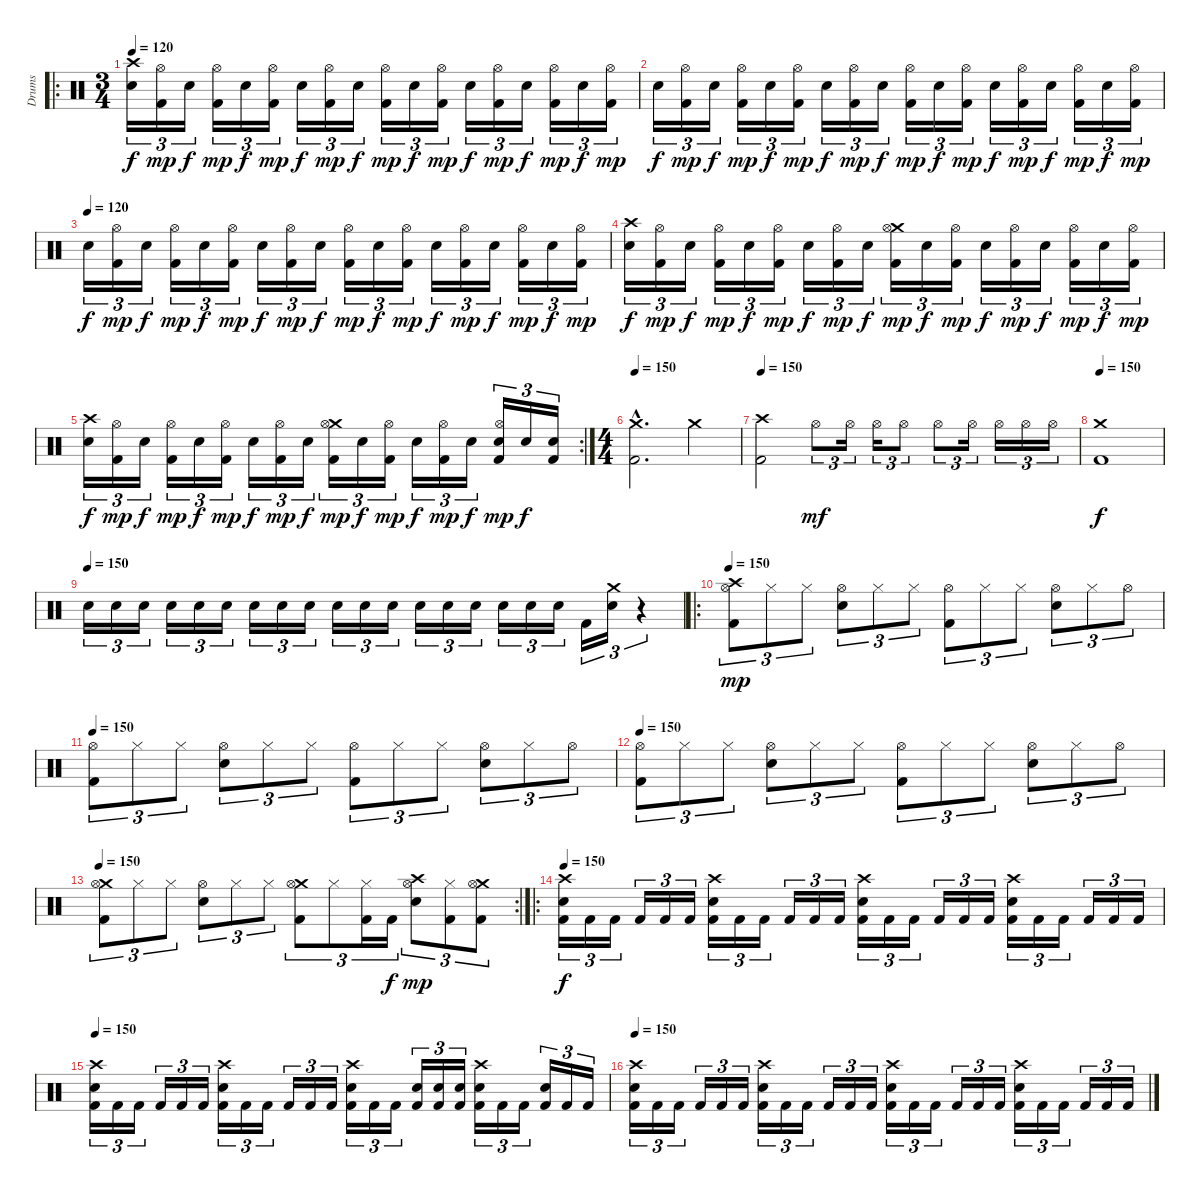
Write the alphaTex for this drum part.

\track ("Drums" "Drums") {instrument percussion}
\staff {score}
\articulation defaults
\ro
\ts (3 4)
\tempo 120
\clef neutral
\ks c
("Crash high (hit)" "Electric Snare (hit)").16{tu (3 2) dy f} ("Hi-Hat (open)" "Kick (hit) 2").16{tu (3 2) dy mp} "Electric Snare (hit)".16{tu (3 2) dy f} ("Hi-Hat (open)" "Kick (hit) 2").16{tu (3 2) dy mp} "Electric Snare (hit)".16{tu (3 2) dy f} ("Hi-Hat (open)" "Kick (hit) 2").16{tu (3 2) dy mp} "Electric Snare (hit)".16{tu (3 2) dy f} ("Hi-Hat (open)" "Kick (hit) 2").16{tu (3 2) dy mp} "Electric Snare (hit)".16{tu (3 2) dy f} ("Hi-Hat (open)" "Kick (hit) 2").16{tu (3 2) dy mp} "Electric Snare (hit)".16{tu (3 2) dy f} ("Hi-Hat (open)" "Kick (hit) 2").16{tu (3 2) dy mp} "Electric Snare (hit)".16{tu (3 2) dy f} ("Hi-Hat (open)" "Kick (hit) 2").16{tu (3 2) dy mp} "Electric Snare (hit)".16{tu (3 2) dy f} ("Hi-Hat (open)" "Kick (hit) 2").16{tu (3 2) dy mp} "Electric Snare (hit)".16{tu (3 2) dy f} ("Hi-Hat (open)" "Kick (hit) 2").16{tu (3 2) dy mp} |
"Electric Snare (hit)".16{tu (3 2) dy f} ("Hi-Hat (open)" "Kick (hit) 2").16{tu (3 2) dy mp} "Electric Snare (hit)".16{tu (3 2) dy f} ("Hi-Hat (open)" "Kick (hit) 2").16{tu (3 2) dy mp} "Electric Snare (hit)".16{tu (3 2) dy f} ("Hi-Hat (open)" "Kick (hit) 2").16{tu (3 2) dy mp} "Electric Snare (hit)".16{tu (3 2) dy f} ("Hi-Hat (open)" "Kick (hit) 2").16{tu (3 2) dy mp} "Electric Snare (hit)".16{tu (3 2) dy f} ("Hi-Hat (open)" "Kick (hit) 2").16{tu (3 2) dy mp} "Electric Snare (hit)".16{tu (3 2) dy f} ("Hi-Hat (open)" "Kick (hit) 2").16{tu (3 2) dy mp} "Electric Snare (hit)".16{tu (3 2) dy f} ("Hi-Hat (open)" "Kick (hit) 2").16{tu (3 2) dy mp} "Electric Snare (hit)".16{tu (3 2) dy f} ("Hi-Hat (open)" "Kick (hit) 2").16{tu (3 2) dy mp} "Electric Snare (hit)".16{tu (3 2) dy f} ("Hi-Hat (open)" "Kick (hit) 2").16{tu (3 2) dy mp} |
\tempo (120)
"Electric Snare (hit)".16{tu (3 2) dy f} ("Hi-Hat (open)" "Kick (hit) 2").16{tu (3 2) dy mp} "Electric Snare (hit)".16{tu (3 2) dy f} ("Hi-Hat (open)" "Kick (hit) 2").16{tu (3 2) dy mp} "Electric Snare (hit)".16{tu (3 2) dy f} ("Hi-Hat (open)" "Kick (hit) 2").16{tu (3 2) dy mp} "Electric Snare (hit)".16{tu (3 2) dy f} ("Hi-Hat (open)" "Kick (hit) 2").16{tu (3 2) dy mp} "Electric Snare (hit)".16{tu (3 2) dy f} ("Hi-Hat (open)" "Kick (hit) 2").16{tu (3 2) dy mp} "Electric Snare (hit)".16{tu (3 2) dy f} ("Hi-Hat (open)" "Kick (hit) 2").16{tu (3 2) dy mp} "Electric Snare (hit)".16{tu (3 2) dy f} ("Hi-Hat (open)" "Kick (hit) 2").16{tu (3 2) dy mp} "Electric Snare (hit)".16{tu (3 2) dy f} ("Hi-Hat (open)" "Kick (hit) 2").16{tu (3 2) dy mp} "Electric Snare (hit)".16{tu (3 2) dy f} ("Hi-Hat (open)" "Kick (hit) 2").16{tu (3 2) dy mp} |
("Crash high (hit)" "Electric Snare (hit)").16{tu (3 2) dy f} ("Hi-Hat (open)" "Kick (hit) 2").16{tu (3 2) dy mp} "Electric Snare (hit)".16{tu (3 2) dy f} ("Hi-Hat (open)" "Kick (hit) 2").16{tu (3 2) dy mp} "Electric Snare (hit)".16{tu (3 2) dy f} ("Hi-Hat (open)" "Kick (hit) 2").16{tu (3 2) dy mp} "Electric Snare (hit)".16{tu (3 2) dy f} ("Hi-Hat (open)" "Kick (hit) 2").16{tu (3 2) dy mp} "Electric Snare (hit)".16{tu (3 2) dy f} ("Crash medium (hit)" "Hi-Hat (open)" "Kick (hit) 2").16{tu (3 2) dy mp} "Electric Snare (hit)".16{tu (3 2) dy f} ("Hi-Hat (open)" "Kick (hit) 2").16{tu (3 2) dy mp} "Electric Snare (hit)".16{tu (3 2) dy f} ("Hi-Hat (open)" "Kick (hit) 2").16{tu (3 2) dy mp} "Electric Snare (hit)".16{tu (3 2) dy f} ("Hi-Hat (open)" "Kick (hit) 2").16{tu (3 2) dy mp} "Electric Snare (hit)".16{tu (3 2) dy f} ("Hi-Hat (open)" "Kick (hit) 2").16{tu (3 2) dy mp} |
\rc 2
("Crash high (hit)" "Electric Snare (hit)").16{tu (3 2) dy f} ("Hi-Hat (open)" "Kick (hit) 2").16{tu (3 2) dy mp} "Electric Snare (hit)".16{tu (3 2) dy f} ("Hi-Hat (open)" "Kick (hit) 2").16{tu (3 2) dy mp} "Electric Snare (hit)".16{tu (3 2) dy f} ("Hi-Hat (open)" "Kick (hit) 2").16{tu (3 2) dy mp} "Electric Snare (hit)".16{tu (3 2) dy f} ("Hi-Hat (open)" "Kick (hit) 2").16{tu (3 2) dy mp} "Electric Snare (hit)".16{tu (3 2) dy f} ("Crash medium (hit)" "Hi-Hat (open)" "Kick (hit) 2").16{tu (3 2) dy mp} "Electric Snare (hit)".16{tu (3 2) dy f} ("Hi-Hat (open)" "Kick (hit) 2").16{tu (3 2) dy mp} "Electric Snare (hit)".16{tu (3 2) dy f} ("Hi-Hat (open)" "Kick (hit) 2").16{tu (3 2) dy mp} "Electric Snare (hit)".16{tu (3 2) dy f} ("Hi-Hat (open)" "Electric Snare (hit)" "Kick (hit) 2").16{tu (3 2) dy mp} "Electric Snare (hit)".16{tu (3 2) dy f} ("Electric Snare (hit)" "Kick (hit) 2").16{tu (3 2)} |
\ts (4 4)
\tempo 150
("Crash medium (hit)"{hac} "Kick (hit) 2"{hac}).2{d} "Crash medium (hit)".4 |
\tempo 150
("Crash high (hit)" "Kick (hit) 2").2 "Hi-Hat (open)".8{tu (3 2) dy mf} "Hi-Hat (open)".16{tu (3 2)} "Hi-Hat (open)".16{tu (3 2)} "Hi-Hat (open)".8{tu (3 2)} "Hi-Hat (open)".8{tu (3 2)} "Hi-Hat (open)".16{tu (3 2)} "Hi-Hat (open)".16{tu (3 2)} "Hi-Hat (open)".16{tu (3 2)} "Hi-Hat (open)".16{tu (3 2)} |
\tempo 150
("Crash medium (hit)" "Kick (hit) 2").1{dy f} |
\tempo (150)
"Electric Snare (hit)".16{tu (3 2)} "Electric Snare (hit)".16{tu (3 2)} "Electric Snare (hit)".16{tu (3 2)} "Electric Snare (hit)".16{tu (3 2)} "Electric Snare (hit)".16{tu (3 2)} "Electric Snare (hit)".16{tu (3 2)} "Electric Snare (hit)".16{tu (3 2)} "Electric Snare (hit)".16{tu (3 2)} "Electric Snare (hit)".16{tu (3 2)} "Electric Snare (hit)".16{tu (3 2)} "Electric Snare (hit)".16{tu (3 2)} "Electric Snare (hit)".16{tu (3 2)} "Electric Snare (hit)".16{tu (3 2)} "Electric Snare (hit)".16{tu (3 2)} "Electric Snare (hit)".16{tu (3 2)} "Electric Snare (hit)".16{tu (3 2)} "Electric Snare (hit)".16{tu (3 2)} "Electric Snare (hit)".16{tu (3 2)} "Kick (hit) 2".16{tu (3 2)} ("Crash medium (hit)" "Electric Snare (hit)").16{tu (3 2)} r.4{tu (3 2)} |
\ro
\tempo 150
("Crash high (hit)" "Hi-Hat (open)" "Kick (hit) 2").8{tu (3 2) dy mp} "Hi-Hat (closed)".8{tu (3 2)} "Hi-Hat (closed)".8{tu (3 2)} ("Hi-Hat (open)" "Electric Snare (hit)").8{tu (3 2)} "Hi-Hat (closed)".8{tu (3 2)} "Hi-Hat (closed)".8{tu (3 2)} ("Hi-Hat (open)" "Kick (hit) 2").8{tu (3 2)} "Hi-Hat (closed)".8{tu (3 2)} "Hi-Hat (closed)".8{tu (3 2)} ("Hi-Hat (open)" "Electric Snare (hit)").8{tu (3 2)} "Hi-Hat (closed)".8{tu (3 2)} "Hi-Hat (open)".8{tu (3 2)} |
\tempo 150
("Hi-Hat (open)" "Kick (hit) 2").8{tu (3 2)} "Hi-Hat (closed)".8{tu (3 2)} "Hi-Hat (closed)".8{tu (3 2)} ("Hi-Hat (open)" "Electric Snare (hit)").8{tu (3 2)} "Hi-Hat (closed)".8{tu (3 2)} "Hi-Hat (closed)".8{tu (3 2)} ("Hi-Hat (open)" "Kick (hit) 2").8{tu (3 2)} "Hi-Hat (closed)".8{tu (3 2)} "Hi-Hat (closed)".8{tu (3 2)} ("Hi-Hat (open)" "Electric Snare (hit)").8{tu (3 2)} "Hi-Hat (closed)".8{tu (3 2)} "Hi-Hat (open)".8{tu (3 2)} |
\tempo 150
("Hi-Hat (open)" "Kick (hit) 2").8{tu (3 2)} "Hi-Hat (closed)".8{tu (3 2)} "Hi-Hat (closed)".8{tu (3 2)} ("Hi-Hat (open)" "Electric Snare (hit)").8{tu (3 2)} "Hi-Hat (closed)".8{tu (3 2)} "Hi-Hat (closed)".8{tu (3 2)} ("Hi-Hat (open)" "Kick (hit) 2").8{tu (3 2)} "Hi-Hat (closed)".8{tu (3 2)} "Hi-Hat (closed)".8{tu (3 2)} ("Hi-Hat (open)" "Electric Snare (hit)").8{tu (3 2)} "Hi-Hat (closed)".8{tu (3 2)} "Hi-Hat (open)".8{tu (3 2)} |
\rc 2
\tempo 150
("Crash medium (hit)" "Hi-Hat (open)" "Kick (hit) 2").8{tu (3 2)} "Hi-Hat (closed)".8{tu (3 2)} "Hi-Hat (closed)".8{tu (3 2)} ("Hi-Hat (open)" "Electric Snare (hit)").8{tu (3 2)} "Hi-Hat (closed)".8{tu (3 2)} "Hi-Hat (closed)".8{tu (3 2)} ("Crash medium (hit)" "Hi-Hat (open)" "Kick (hit) 2").8{tu (3 2)} "Hi-Hat (closed)".8{tu (3 2)} ("Hi-Hat (closed)" "Kick (hit) 2").16{tu (3 2)} "Kick (hit) 2".16{tu (3 2) dy f} ("Crash high (hit)" "Hi-Hat (open)" "Electric Snare (hit)").8{tu (3 2) dy mp} ("Hi-Hat (closed)" "Kick (hit) 2").8{tu (3 2)} ("Crash medium (hit)" "Hi-Hat (open)" "Kick (hit) 2").8{tu (3 2)} |
\ro
\tempo 150
("Crash high (hit)" "Electric Snare (hit)" "Kick (hit) 2").16{tu (3 2) dy f} "Kick (hit) 2".16{tu (3 2)} "Kick (hit) 2".16{tu (3 2)} "Kick (hit) 2".16{tu (3 2)} "Kick (hit) 2".16{tu (3 2)} "Kick (hit) 2".16{tu (3 2)} ("Crash high (hit)" "Electric Snare (hit)" "Kick (hit) 2").16{tu (3 2)} "Kick (hit) 2".16{tu (3 2)} "Kick (hit) 2".16{tu (3 2)} "Kick (hit) 2".16{tu (3 2)} "Kick (hit) 2".16{tu (3 2)} "Kick (hit) 2".16{tu (3 2)} ("Crash high (hit)" "Electric Snare (hit)" "Kick (hit) 2").16{tu (3 2)} "Kick (hit) 2".16{tu (3 2)} "Kick (hit) 2".16{tu (3 2)} "Kick (hit) 2".16{tu (3 2)} "Kick (hit) 2".16{tu (3 2)} "Kick (hit) 2".16{tu (3 2)} ("Crash high (hit)" "Electric Snare (hit)" "Kick (hit) 2").16{tu (3 2)} "Kick (hit) 2".16{tu (3 2)} "Kick (hit) 2".16{tu (3 2)} "Kick (hit) 2".16{tu (3 2)} "Kick (hit) 2".16{tu (3 2)} "Kick (hit) 2".16{tu (3 2)} |
\tempo 150
("Crash high (hit)" "Electric Snare (hit)" "Kick (hit) 2").16{tu (3 2)} "Kick (hit) 2".16{tu (3 2)} "Kick (hit) 2".16{tu (3 2)} "Kick (hit) 2".16{tu (3 2)} "Kick (hit) 2".16{tu (3 2)} "Kick (hit) 2".16{tu (3 2)} ("Crash high (hit)" "Electric Snare (hit)" "Kick (hit) 2").16{tu (3 2)} "Kick (hit) 2".16{tu (3 2)} "Kick (hit) 2".16{tu (3 2)} "Kick (hit) 2".16{tu (3 2)} "Kick (hit) 2".16{tu (3 2)} "Kick (hit) 2".16{tu (3 2)} ("Crash high (hit)" "Electric Snare (hit)" "Kick (hit) 2").16{tu (3 2)} "Kick (hit) 2".16{tu (3 2)} "Kick (hit) 2".16{tu (3 2)} ("Electric Snare (hit)" "Kick (hit) 2").16{tu (3 2)} ("Electric Snare (hit)" "Kick (hit) 2").16{tu (3 2)} ("Electric Snare (hit)" "Kick (hit) 2").16{tu (3 2)} ("Crash high (hit)" "Electric Snare (hit)" "Kick (hit) 2").16{tu (3 2)} "Kick (hit) 2".16{tu (3 2)} "Kick (hit) 2".16{tu (3 2)} ("Electric Snare (hit)" "Kick (hit) 2").16{tu (3 2)} "Kick (hit) 2".16{tu (3 2)} "Kick (hit) 2".16{tu (3 2)} |
\tempo 150
("Crash high (hit)" "Electric Snare (hit)" "Kick (hit) 2").16{tu (3 2)} "Kick (hit) 2".16{tu (3 2)} "Kick (hit) 2".16{tu (3 2)} "Kick (hit) 2".16{tu (3 2)} "Kick (hit) 2".16{tu (3 2)} "Kick (hit) 2".16{tu (3 2)} ("Crash high (hit)" "Electric Snare (hit)" "Kick (hit) 2").16{tu (3 2)} "Kick (hit) 2".16{tu (3 2)} "Kick (hit) 2".16{tu (3 2)} "Kick (hit) 2".16{tu (3 2)} "Kick (hit) 2".16{tu (3 2)} "Kick (hit) 2".16{tu (3 2)} ("Crash high (hit)" "Electric Snare (hit)" "Kick (hit) 2").16{tu (3 2)} "Kick (hit) 2".16{tu (3 2)} "Kick (hit) 2".16{tu (3 2)} "Kick (hit) 2".16{tu (3 2)} "Kick (hit) 2".16{tu (3 2)} "Kick (hit) 2".16{tu (3 2)} ("Crash high (hit)" "Electric Snare (hit)" "Kick (hit) 2").16{tu (3 2)} "Kick (hit) 2".16{tu (3 2)} "Kick (hit) 2".16{tu (3 2)} "Kick (hit) 2".16{tu (3 2)} "Kick (hit) 2".16{tu (3 2)} "Kick (hit) 2".16{tu (3 2)}
